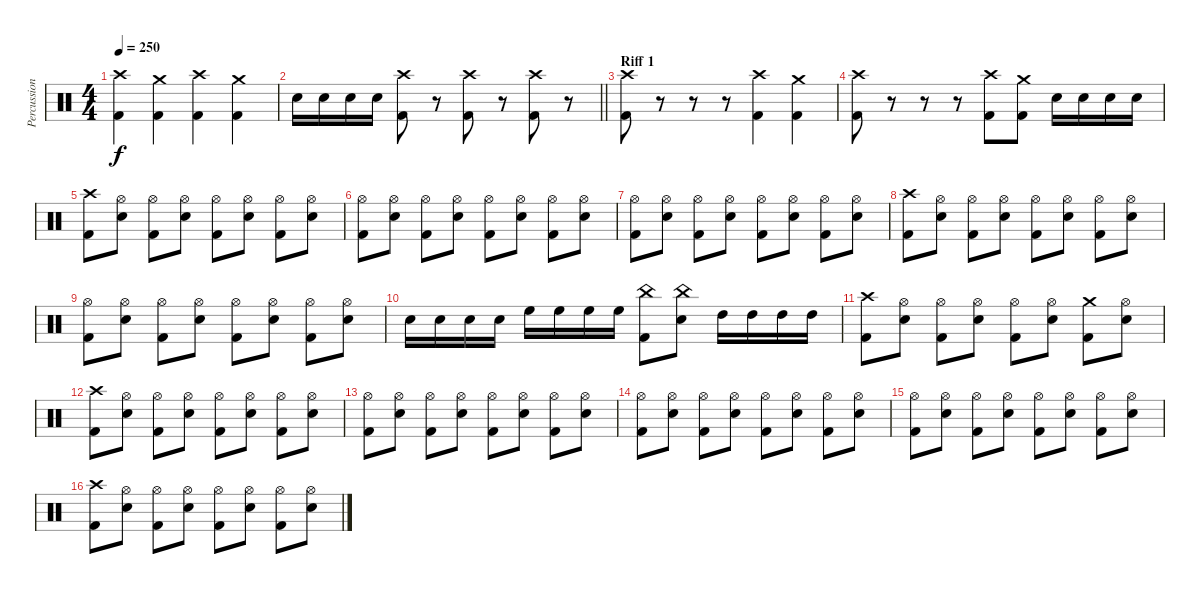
\track ("Percussion" "Percussion") {instrument percussion}
\staff {score}
\articulation defaults
\ts (4 4)
\tempo 250
\tempo 230
\tempo 250
\clef neutral
\ks c
("Crash high (hit)" "Kick (hit) 2").4{dy f} ("Crash medium (hit)" "Kick (hit) 2").4 ("Crash high (hit)" "Kick (hit) 2").4 ("Crash medium (hit)" "Kick (hit) 2").4 |
\barLineRight lightlight "Electric Snare (hit)".16 "Electric Snare (hit)".16 "Electric Snare (hit)".16 "Electric Snare (hit)".16
("Crash high (hit)" "Kick (hit) 2").8 r.8{volume 0} ("Crash high (hit)" "Kick (hit) 2").8{volume 13} r.8{volume 0} ("Crash high (hit)" "Kick (hit) 2").8{volume 13} r.8{volume 0} |
\section ("" "Riff 1")
("Crash high (hit)" "Kick (hit) 2").8{volume 13} r.8{volume 0} r.8 r.8 ("Crash high (hit)" "Kick (hit) 2").4{volume 13} ("Crash medium (hit)" "Kick (hit) 2").4 |
("Crash high (hit)" "Kick (hit) 2").8{volume 13} r.8{volume 0} r.8 r.8 ("Crash high (hit)" "Kick (hit) 2").8{volume 13} ("Crash medium (hit)" "Kick (hit) 2").8 "Electric Snare (hit)".16 "Electric Snare (hit)".16 "Electric Snare (hit)".16 "Electric Snare (hit)".16 |
("Crash high (hit)" "Kick (hit) 2").8 ("Hi-Hat (open)" "Electric Snare (hit)").8 ("Hi-Hat (open)" "Kick (hit) 2").8 ("Hi-Hat (open)" "Electric Snare (hit)").8 ("Hi-Hat (open)" "Kick (hit) 2").8 ("Hi-Hat (open)" "Electric Snare (hit)").8 ("Hi-Hat (open)" "Kick (hit) 2").8 ("Hi-Hat (open)" "Electric Snare (hit)").8 |
("Hi-Hat (open)" "Kick (hit) 2").8 ("Hi-Hat (open)" "Electric Snare (hit)").8 ("Hi-Hat (open)" "Kick (hit) 2").8 ("Hi-Hat (open)" "Electric Snare (hit)").8 ("Hi-Hat (open)" "Kick (hit) 2").8 ("Hi-Hat (open)" "Electric Snare (hit)").8 ("Hi-Hat (open)" "Kick (hit) 2").8 ("Hi-Hat (open)" "Electric Snare (hit)").8 |
("Hi-Hat (open)" "Kick (hit) 2").8 ("Hi-Hat (open)" "Electric Snare (hit)").8 ("Hi-Hat (open)" "Kick (hit) 2").8 ("Hi-Hat (open)" "Electric Snare (hit)").8 ("Hi-Hat (open)" "Kick (hit) 2").8 ("Hi-Hat (open)" "Electric Snare (hit)").8 ("Hi-Hat (open)" "Kick (hit) 2").8 ("Hi-Hat (open)" "Electric Snare (hit)").8 |
("Crash high (hit)" "Kick (hit) 2").8 ("Hi-Hat (open)" "Electric Snare (hit)").8 ("Hi-Hat (open)" "Kick (hit) 2").8 ("Hi-Hat (open)" "Electric Snare (hit)").8 ("Hi-Hat (open)" "Kick (hit) 2").8 ("Hi-Hat (open)" "Electric Snare (hit)").8 ("Hi-Hat (open)" "Kick (hit) 2").8 ("Hi-Hat (open)" "Electric Snare (hit)").8 |
("Hi-Hat (open)" "Kick (hit) 2").8 ("Hi-Hat (open)" "Electric Snare (hit)").8 ("Hi-Hat (open)" "Kick (hit) 2").8 ("Hi-Hat (open)" "Electric Snare (hit)").8 ("Hi-Hat (open)" "Kick (hit) 2").8 ("Hi-Hat (open)" "Electric Snare (hit)").8 ("Hi-Hat (open)" "Kick (hit) 2").8 ("Hi-Hat (open)" "Electric Snare (hit)").8 |
"Electric Snare (hit)".16 "Electric Snare (hit)".16 "Electric Snare (hit)".16 "Electric Snare (hit)".16 "High Floor Tom (hit)".16 "High Floor Tom (hit)".16 "High Floor Tom (hit)".16 "High Floor Tom (hit)".16 ("China (hit)" "Kick (hit) 2").8 ("China (hit)" "Electric Snare (hit)").8 "High Tom (hit)".16 "High Tom (hit)".16 "High Tom (hit)".16 "High Tom (hit)".16 |
("Crash high (hit)" "Kick (hit) 2").8 ("Hi-Hat (open)" "Electric Snare (hit)").8 ("Hi-Hat (open)" "Kick (hit) 2").8 ("Hi-Hat (open)" "Electric Snare (hit)").8 ("Hi-Hat (open)" "Kick (hit) 2").8 ("Hi-Hat (open)" "Electric Snare (hit)").8 ("Crash medium (hit)" "Kick (hit) 2").8 ("Hi-Hat (open)" "Electric Snare (hit)").8 |
("Crash high (hit)" "Kick (hit) 2").8 ("Hi-Hat (open)" "Electric Snare (hit)").8 ("Hi-Hat (open)" "Kick (hit) 2").8 ("Hi-Hat (open)" "Electric Snare (hit)").8 ("Hi-Hat (open)" "Kick (hit) 2").8 ("Hi-Hat (open)" "Electric Snare (hit)").8 ("Hi-Hat (open)" "Kick (hit) 2").8 ("Hi-Hat (open)" "Electric Snare (hit)").8 |
("Hi-Hat (open)" "Kick (hit) 2").8 ("Hi-Hat (open)" "Electric Snare (hit)").8 ("Hi-Hat (open)" "Kick (hit) 2").8 ("Hi-Hat (open)" "Electric Snare (hit)").8 ("Hi-Hat (open)" "Kick (hit) 2").8 ("Hi-Hat (open)" "Electric Snare (hit)").8 ("Hi-Hat (open)" "Kick (hit) 2").8 ("Hi-Hat (open)" "Electric Snare (hit)").8 |
("Hi-Hat (open)" "Kick (hit) 2").8 ("Hi-Hat (open)" "Electric Snare (hit)").8 ("Hi-Hat (open)" "Kick (hit) 2").8 ("Hi-Hat (open)" "Electric Snare (hit)").8 ("Hi-Hat (open)" "Kick (hit) 2").8 ("Hi-Hat (open)" "Electric Snare (hit)").8 ("Hi-Hat (open)" "Kick (hit) 2").8 ("Hi-Hat (open)" "Electric Snare (hit)").8 |
("Hi-Hat (open)" "Kick (hit) 2").8 ("Hi-Hat (open)" "Electric Snare (hit)").8 ("Hi-Hat (open)" "Kick (hit) 2").8 ("Hi-Hat (open)" "Electric Snare (hit)").8 ("Hi-Hat (open)" "Kick (hit) 2").8 ("Hi-Hat (open)" "Electric Snare (hit)").8 ("Hi-Hat (open)" "Kick (hit) 2").8 ("Hi-Hat (open)" "Electric Snare (hit)").8 |
("Crash high (hit)" "Kick (hit) 2").8 ("Hi-Hat (open)" "Electric Snare (hit)").8 ("Hi-Hat (open)" "Kick (hit) 2").8 ("Hi-Hat (open)" "Electric Snare (hit)").8 ("Hi-Hat (open)" "Kick (hit) 2").8 ("Hi-Hat (open)" "Electric Snare (hit)").8 ("Hi-Hat (open)" "Kick (hit) 2").8 ("Hi-Hat (open)" "Electric Snare (hit)").8
